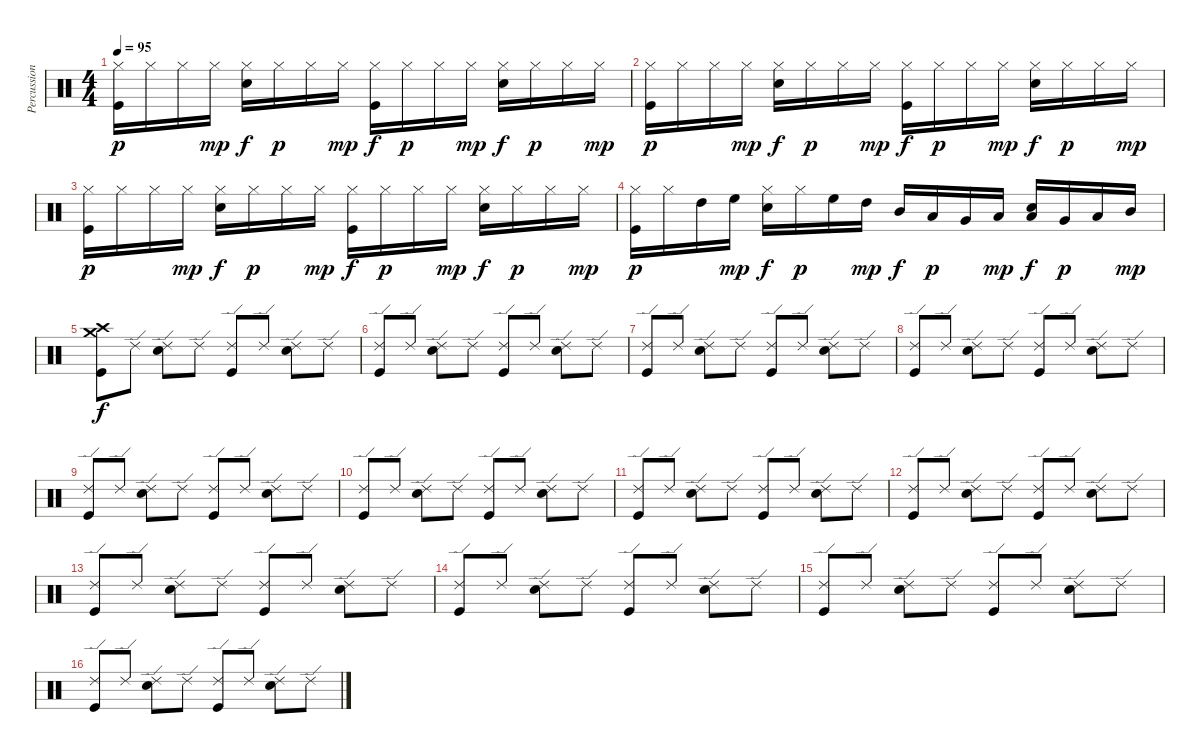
\track ("Percussion" "Percussion") {instrument percussion}
\staff {score}
\articulation defaults
\ts (4 4)
\tempo 95
\clef neutral
\ks c
("Hi-Hat (closed)" "Kick (hit)").16{dy p} "Hi-Hat (closed)".16 "Hi-Hat (closed)".16 "Hi-Hat (closed)".16{dy mp} ("Hi-Hat (closed)" "Snare (hit) 2").16{dy f} "Hi-Hat (closed)".16{dy p} "Hi-Hat (closed)".16 "Hi-Hat (closed)".16{dy mp} ("Hi-Hat (closed)" "Kick (hit)").16{dy f} "Hi-Hat (closed)".16{dy p} "Hi-Hat (closed)".16 "Hi-Hat (closed)".16{dy mp} ("Hi-Hat (closed)" "Snare (hit) 2").16{dy f} "Hi-Hat (closed)".16{dy p} "Hi-Hat (closed)".16 "Hi-Hat (closed)".16{dy mp} |
("Hi-Hat (closed)" "Kick (hit)").16{dy p} "Hi-Hat (closed)".16 "Hi-Hat (closed)".16 "Hi-Hat (closed)".16{dy mp} ("Hi-Hat (closed)" "Snare (hit) 2").16{dy f} "Hi-Hat (closed)".16{dy p} "Hi-Hat (closed)".16 "Hi-Hat (closed)".16{dy mp} ("Hi-Hat (closed)" "Kick (hit)").16{dy f} "Hi-Hat (closed)".16{dy p} "Hi-Hat (closed)".16 "Hi-Hat (closed)".16{dy mp} ("Hi-Hat (closed)" "Snare (hit) 2").16{dy f} "Hi-Hat (closed)".16{dy p} "Hi-Hat (closed)".16 "Hi-Hat (closed)".16{dy mp} |
("Hi-Hat (closed)" "Kick (hit)").16{dy p} "Hi-Hat (closed)".16 "Hi-Hat (closed)".16 "Hi-Hat (closed)".16{dy mp} ("Hi-Hat (closed)" "Snare (hit) 2").16{dy f} "Hi-Hat (closed)".16{dy p} "Hi-Hat (closed)".16 "Hi-Hat (closed)".16{dy mp} ("Hi-Hat (closed)" "Kick (hit)").16{dy f} "Hi-Hat (closed)".16{dy p} "Hi-Hat (closed)".16 "Hi-Hat (closed)".16{dy mp} ("Hi-Hat (closed)" "Snare (hit) 2").16{dy f} "Hi-Hat (closed)".16{dy p} "Hi-Hat (closed)".16 "Hi-Hat (closed)".16{dy mp} |
("Hi-Hat (closed)" "Kick (hit)").16{dy p} "Hi-Hat (closed)".16 "High Tom (hit)".16 "High Floor Tom (hit)".16{dy mp} ("Hi-Hat (closed)" "Snare (hit) 2").16{dy f} "Hi-Hat (closed)".16{dy p} "High Floor Tom (hit)".16 "High Tom (hit)".16{dy mp} "Mid Tom (hit)".16{dy f} "Low Tom (hit)".16{dy p} "Very Low Tom (hit)".16 "Low Floor Tom (hit)".16{dy mp} ("Low Floor Tom (hit)" "Snare (hit) 2").16{dy f} "Very Low Tom (hit)".16{dy p} "Low Tom (hit)".16 "Mid Tom (hit)".16{dy mp} |
("Crash medium (hit)" "Crash high (hit)" "Kick (hit)").8{dy f} "Ride (edge) 2".8 ("Ride (edge) 2" "Electric Snare (hit)").8 "Ride (edge) 2".8 ("Ride (edge) 2" "Kick (hit)").8 "Ride (edge) 2".8 ("Ride (edge) 2" "Electric Snare (hit)").8 "Ride (edge) 2".8 |
("Ride (edge) 2" "Kick (hit)").8 "Ride (edge) 2".8 ("Ride (edge) 2" "Electric Snare (hit)").8 "Ride (edge) 2".8 ("Ride (edge) 2" "Kick (hit)").8 "Ride (edge) 2".8 ("Ride (edge) 2" "Electric Snare (hit)").8 "Ride (edge) 2".8 |
("Ride (edge) 2" "Kick (hit)").8 "Ride (edge) 2".8 ("Ride (edge) 2" "Electric Snare (hit)").8 "Ride (edge) 2".8 ("Ride (edge) 2" "Kick (hit)").8 "Ride (edge) 2".8 ("Ride (edge) 2" "Electric Snare (hit)").8 "Ride (edge) 2".8 |
("Ride (edge) 2" "Kick (hit)").8 "Ride (edge) 2".8 ("Ride (edge) 2" "Electric Snare (hit)").8 "Ride (edge) 2".8 ("Ride (edge) 2" "Kick (hit)").8 "Ride (edge) 2".8 ("Ride (edge) 2" "Electric Snare (hit)").8 "Ride (edge) 2".8 |
("Ride (edge) 2" "Kick (hit)").8 "Ride (edge) 2".8 ("Ride (edge) 2" "Electric Snare (hit)").8 "Ride (edge) 2".8 ("Ride (edge) 2" "Kick (hit)").8 "Ride (edge) 2".8 ("Ride (edge) 2" "Electric Snare (hit)").8 "Ride (edge) 2".8 |
("Ride (edge) 2" "Kick (hit)").8 "Ride (edge) 2".8 ("Ride (edge) 2" "Electric Snare (hit)").8 "Ride (edge) 2".8 ("Ride (edge) 2" "Kick (hit)").8 "Ride (edge) 2".8 ("Ride (edge) 2" "Electric Snare (hit)").8 "Ride (edge) 2".8 |
("Ride (edge) 2" "Kick (hit)").8 "Ride (edge) 2".8 ("Ride (edge) 2" "Electric Snare (hit)").8 "Ride (edge) 2".8 ("Ride (edge) 2" "Kick (hit)").8 "Ride (edge) 2".8 ("Ride (edge) 2" "Electric Snare (hit)").8 "Ride (edge) 2".8 |
("Ride (edge) 2" "Kick (hit)").8 "Ride (edge) 2".8 ("Ride (edge) 2" "Electric Snare (hit)").8 "Ride (edge) 2".8 ("Ride (edge) 2" "Kick (hit)").8 "Ride (edge) 2".8 ("Ride (edge) 2" "Electric Snare (hit)").8 "Ride (edge) 2".8 |
("Ride (edge) 2" "Kick (hit)").8 "Ride (edge) 2".8 ("Ride (edge) 2" "Electric Snare (hit)").8 "Ride (edge) 2".8 ("Ride (edge) 2" "Kick (hit)").8 "Ride (edge) 2".8 ("Ride (edge) 2" "Electric Snare (hit)").8 "Ride (edge) 2".8 |
("Ride (edge) 2" "Kick (hit)").8 "Ride (edge) 2".8 ("Ride (edge) 2" "Electric Snare (hit)").8 "Ride (edge) 2".8 ("Ride (edge) 2" "Kick (hit)").8 "Ride (edge) 2".8 ("Ride (edge) 2" "Electric Snare (hit)").8 "Ride (edge) 2".8 |
("Ride (edge) 2" "Kick (hit)").8 "Ride (edge) 2".8 ("Ride (edge) 2" "Electric Snare (hit)").8 "Ride (edge) 2".8 ("Ride (edge) 2" "Kick (hit)").8 "Ride (edge) 2".8 ("Ride (edge) 2" "Electric Snare (hit)").8 "Ride (edge) 2".8 |
("Ride (edge) 2" "Kick (hit)").8 "Ride (edge) 2".8 ("Ride (edge) 2" "Electric Snare (hit)").8 "Ride (edge) 2".8 ("Ride (edge) 2" "Kick (hit)").8 "Ride (edge) 2".8 ("Ride (edge) 2" "Electric Snare (hit)").8 "Ride (edge) 2".8
